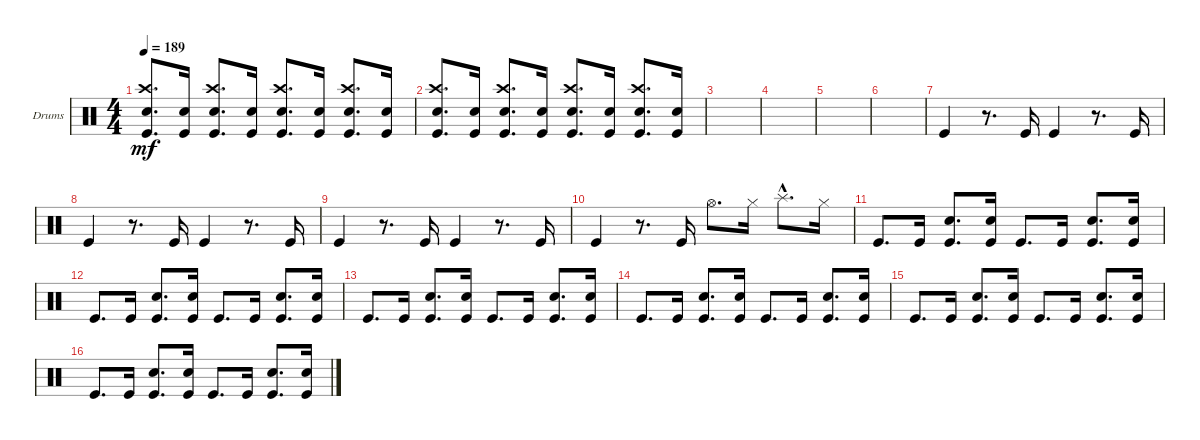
\defaultSystemsLayout 4
\bracketExtendMode groupsimilarinstruments
\firstSystemTrackNameOrientation horizontal
\otherSystemsTrackNameOrientation horizontal
\track ("Drumkit" "Drums") {instrument percussion}
\staff {score}
\articulation defaults
\ts (4 4)
\tempo 189
\clef neutral
\scale
0.333333
\ks c
("Kick (hit)" "Crash high (hit)" "Snare (hit) 2").8{d dy mf} ("Snare (hit) 2" "Kick (hit)").16 ("Kick (hit)" "Crash high (hit)" "Snare (hit) 2").8{d} ("Snare (hit) 2" "Kick (hit)").16 ("Kick (hit)" "Crash high (hit)" "Snare (hit) 2").8{d} ("Snare (hit) 2" "Kick (hit)").16 ("Kick (hit)" "Crash high (hit)" "Snare (hit) 2").8{d} ("Snare (hit) 2" "Kick (hit)").16 |
\scale
0.333333 ("Kick (hit)" "Crash high (hit)" "Snare (hit) 2").8{d} ("Snare (hit) 2" "Kick (hit)").16 ("Kick (hit)" "Crash high (hit)" "Snare (hit) 2").8{d} ("Snare (hit) 2" "Kick (hit)").16 ("Kick (hit)" "Crash high (hit)" "Snare (hit) 2").8{d} ("Snare (hit) 2" "Kick (hit)").16 ("Kick (hit)" "Crash high (hit)" "Snare (hit) 2").8{d} ("Snare (hit) 2" "Kick (hit)").16 |
\scale
0.333333 |
\scale
0.333333 |
\scale
0.333333 |
\scale
0.333333 |
\scale
0.333333 "Kick (hit)".4 r.8{d} "Kick (hit)".16 "Kick (hit)".4 r.8{d} "Kick (hit)".16 |
\scale
0.333333 "Kick (hit)".4 r.8{d} "Kick (hit)".16 "Kick (hit)".4 r.8{d} "Kick (hit)".16 |
"Kick (hit)".4 r.8{d} "Kick (hit)".16 "Kick (hit)".4 r.8{d} "Kick (hit)".16 |
\scale
0.333333 "Kick (hit)".4 r.8{d} "Kick (hit)".16 "Hi-Hat (open)".8{d} "Hi-Hat (closed)".16 "Splash (hit)"{hac}.8{d} "Hi-Hat (closed)".16 |
\scale
0.333333 "Kick (hit)".8{d} "Kick (hit)".16 ("Snare (hit) 2" "Kick (hit)").8{d} ("Snare (hit) 2" "Kick (hit)").16 "Kick (hit)".8{d} "Kick (hit)".16 ("Snare (hit) 2" "Kick (hit)").8{d} ("Snare (hit) 2" "Kick (hit)").16 |
\scale
0.333333 "Kick (hit)".8{d} "Kick (hit)".16 ("Snare (hit) 2" "Kick (hit)").8{d} ("Snare (hit) 2" "Kick (hit)").16 "Kick (hit)".8{d} "Kick (hit)".16 ("Snare (hit) 2" "Kick (hit)").8{d} ("Snare (hit) 2" "Kick (hit)").16 |
\scale
0.333333 "Kick (hit)".8{d} "Kick (hit)".16 ("Snare (hit) 2" "Kick (hit)").8{d} ("Snare (hit) 2" "Kick (hit)").16 "Kick (hit)".8{d} "Kick (hit)".16 ("Snare (hit) 2" "Kick (hit)").8{d} ("Snare (hit) 2" "Kick (hit)").16 |
\scale
0.333333 "Kick (hit)".8{d} "Kick (hit)".16 ("Snare (hit) 2" "Kick (hit)").8{d} ("Snare (hit) 2" "Kick (hit)").16 "Kick (hit)".8{d} "Kick (hit)".16 ("Snare (hit) 2" "Kick (hit)").8{d} ("Snare (hit) 2" "Kick (hit)").16 |
\scale
0.333333 "Kick (hit)".8{d} "Kick (hit)".16 ("Snare (hit) 2" "Kick (hit)").8{d} ("Snare (hit) 2" "Kick (hit)").16 "Kick (hit)".8{d} "Kick (hit)".16 ("Snare (hit) 2" "Kick (hit)").8{d} ("Snare (hit) 2" "Kick (hit)").16 |
\scale
0.333333 "Kick (hit)".8{d} "Kick (hit)".16 ("Snare (hit) 2" "Kick (hit)").8{d} ("Snare (hit) 2" "Kick (hit)").16 "Kick (hit)".8{d} "Kick (hit)".16 ("Snare (hit) 2" "Kick (hit)").8{d} ("Snare (hit) 2" "Kick (hit)").16
